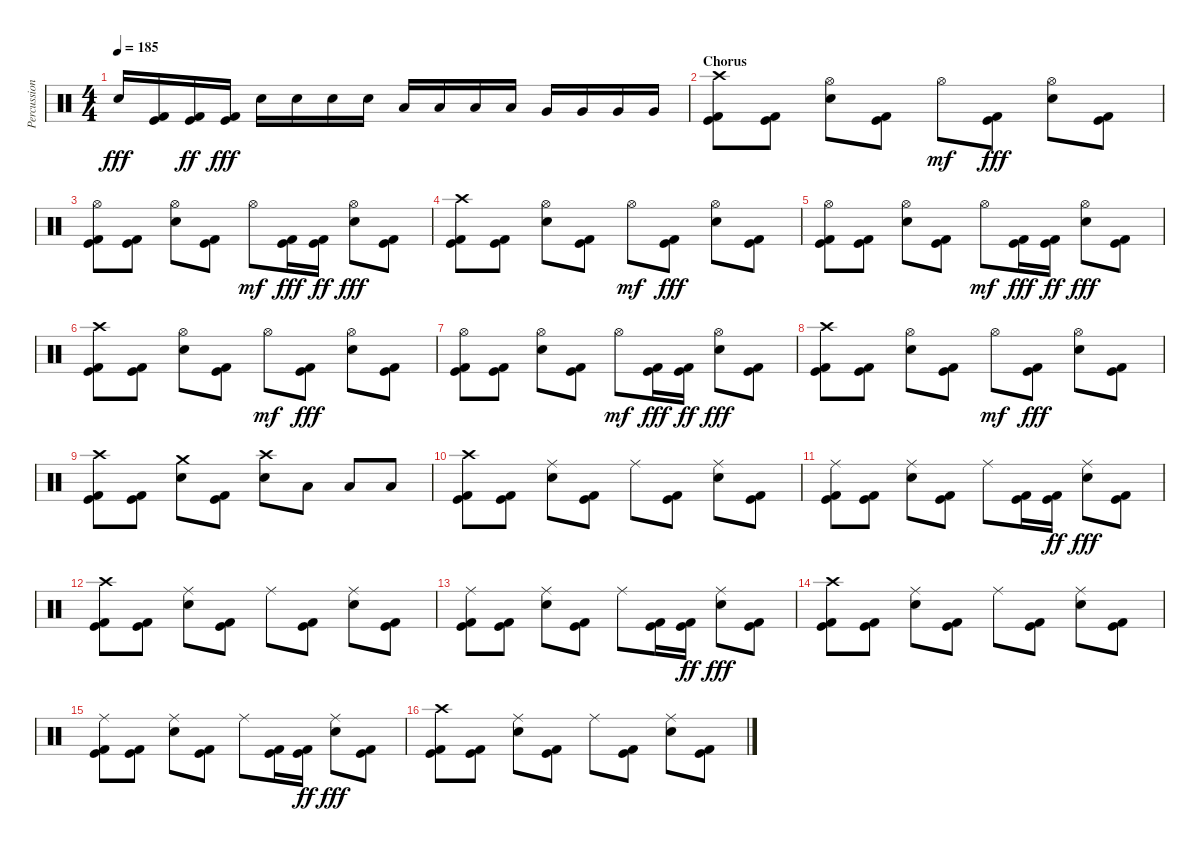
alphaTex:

\track ("Percussion" "Percussion") {instrument percussion}
\staff {score}
\articulation defaults
\ts (4 4)
\tempo 185
\clef neutral
\ks c "Snare (hit) 2".16{dy fff}
("Kick (hit)" "Kick (hit) 2").16 ("Kick (hit)" "Kick (hit) 2").16{dy ff} ("Kick (hit)" "Kick (hit) 2").16{dy fff} "Snare (hit) 2".16 "Snare (hit) 2".16 "Snare (hit) 2".16 "Snare (hit) 2".16 "Low Tom (hit)".16 "Low Tom (hit)".16 "Low Tom (hit)".16 "Low Tom (hit)".16 "Very Low Tom (hit)".16 "Very Low Tom (hit)".16 "Very Low Tom (hit)".16 "Very Low Tom (hit)".16 |
\section ("" "Chorus")
("Crash high (hit)" "Kick (hit)" "Kick (hit) 2").8 ("Kick (hit)" "Kick (hit) 2").8 ("Hi-Hat (open)" "Snare (hit) 2").8 ("Kick (hit)" "Kick (hit) 2").8 "Hi-Hat (open)".8{dy mf} ("Kick (hit)" "Kick (hit) 2").8{dy fff} ("Hi-Hat (open)" "Snare (hit) 2").8 ("Kick (hit)" "Kick (hit) 2").8 |
("Hi-Hat (open)" "Kick (hit)" "Kick (hit) 2").8 ("Kick (hit)" "Kick (hit) 2").8 ("Hi-Hat (open)" "Snare (hit) 2").8 ("Kick (hit)" "Kick (hit) 2").8 "Hi-Hat (open)".8{dy mf} ("Kick (hit)" "Kick (hit) 2").16{dy fff} ("Kick (hit)" "Kick (hit) 2").16{dy ff} ("Hi-Hat (open)" "Snare (hit) 2").8{dy fff} ("Kick (hit)" "Kick (hit) 2").8 |
("Crash high (hit)" "Kick (hit)" "Kick (hit) 2").8 ("Kick (hit)" "Kick (hit) 2").8 ("Hi-Hat (open)" "Snare (hit) 2").8 ("Kick (hit)" "Kick (hit) 2").8 "Hi-Hat (open)".8{dy mf} ("Kick (hit)" "Kick (hit) 2").8{dy fff} ("Hi-Hat (open)" "Snare (hit) 2").8 ("Kick (hit)" "Kick (hit) 2").8 |
("Hi-Hat (open)" "Kick (hit)" "Kick (hit) 2").8 ("Kick (hit)" "Kick (hit) 2").8 ("Hi-Hat (open)" "Snare (hit) 2").8 ("Kick (hit)" "Kick (hit) 2").8 "Hi-Hat (open)".8{dy mf} ("Kick (hit)" "Kick (hit) 2").16{dy fff} ("Kick (hit)" "Kick (hit) 2").16{dy ff} ("Hi-Hat (open)" "Snare (hit) 2").8{dy fff} ("Kick (hit)" "Kick (hit) 2").8 |
("Crash high (hit)" "Kick (hit)" "Kick (hit) 2").8 ("Kick (hit)" "Kick (hit) 2").8 ("Hi-Hat (open)" "Snare (hit) 2").8 ("Kick (hit)" "Kick (hit) 2").8 "Hi-Hat (open)".8{dy mf} ("Kick (hit)" "Kick (hit) 2").8{dy fff} ("Hi-Hat (open)" "Snare (hit) 2").8 ("Kick (hit)" "Kick (hit) 2").8 |
("Hi-Hat (open)" "Kick (hit)" "Kick (hit) 2").8 ("Kick (hit)" "Kick (hit) 2").8 ("Hi-Hat (open)" "Snare (hit) 2").8 ("Kick (hit)" "Kick (hit) 2").8 "Hi-Hat (open)".8{dy mf} ("Kick (hit)" "Kick (hit) 2").16{dy fff} ("Kick (hit)" "Kick (hit) 2").16{dy ff} ("Hi-Hat (open)" "Snare (hit) 2").8{dy fff} ("Kick (hit)" "Kick (hit) 2").8 |
("Crash high (hit)" "Kick (hit)" "Kick (hit) 2").8 ("Kick (hit)" "Kick (hit) 2").8 ("Hi-Hat (open)" "Snare (hit) 2").8 ("Kick (hit)" "Kick (hit) 2").8 "Hi-Hat (open)".8{dy mf} ("Kick (hit)" "Kick (hit) 2").8{dy fff} ("Hi-Hat (open)" "Snare (hit) 2").8 ("Kick (hit)" "Kick (hit) 2").8 |
("Crash high (hit)" "Kick (hit)" "Kick (hit) 2").8 ("Kick (hit)" "Kick (hit) 2").8 ("Crash medium (hit)" "Snare (hit) 2").8 ("Kick (hit)" "Kick (hit) 2").8 ("Crash high (hit)" "Snare (hit) 2").8 "Low Tom (hit)".8 "Low Floor Tom (hit)".8 "Low Floor Tom (hit)".8 |
("Crash high (hit)" "Kick (hit)" "Kick (hit) 2").8 ("Kick (hit)" "Kick (hit) 2").8 ("Ride (middle)" "Snare (hit) 2").8 ("Kick (hit)" "Kick (hit) 2").8 "Ride (middle)".8 ("Kick (hit)" "Kick (hit) 2").8 ("Ride (middle)" "Snare (hit) 2").8 ("Kick (hit)" "Kick (hit) 2").8 |
("Ride (middle)" "Kick (hit)" "Kick (hit) 2").8 ("Kick (hit)" "Kick (hit) 2").8 ("Ride (middle)" "Snare (hit) 2").8 ("Kick (hit)" "Kick (hit) 2").8 "Ride (middle)".8 ("Kick (hit)" "Kick (hit) 2").16 ("Kick (hit)" "Kick (hit) 2").16{dy ff} ("Ride (middle)" "Snare (hit) 2").8{dy fff} ("Kick (hit)" "Kick (hit) 2").8 |
("Crash high (hit)" "Kick (hit)" "Kick (hit) 2").8 ("Kick (hit)" "Kick (hit) 2").8 ("Ride (middle)" "Snare (hit) 2").8 ("Kick (hit)" "Kick (hit) 2").8 "Ride (middle)".8 ("Kick (hit)" "Kick (hit) 2").8 ("Ride (middle)" "Snare (hit) 2").8 ("Kick (hit)" "Kick (hit) 2").8 |
("Ride (middle)" "Kick (hit)" "Kick (hit) 2").8 ("Kick (hit)" "Kick (hit) 2").8 ("Ride (middle)" "Snare (hit) 2").8 ("Kick (hit)" "Kick (hit) 2").8 "Ride (middle)".8 ("Kick (hit)" "Kick (hit) 2").16 ("Kick (hit)" "Kick (hit) 2").16{dy ff} ("Ride (middle)" "Snare (hit) 2").8{dy fff} ("Kick (hit)" "Kick (hit) 2").8 |
("Crash high (hit)" "Kick (hit)" "Kick (hit) 2").8 ("Kick (hit)" "Kick (hit) 2").8 ("Ride (middle)" "Snare (hit) 2").8 ("Kick (hit)" "Kick (hit) 2").8 "Ride (middle)".8 ("Kick (hit)" "Kick (hit) 2").8 ("Ride (middle)" "Snare (hit) 2").8 ("Kick (hit)" "Kick (hit) 2").8 |
("Ride (middle)" "Kick (hit)" "Kick (hit) 2").8 ("Kick (hit)" "Kick (hit) 2").8 ("Ride (middle)" "Snare (hit) 2").8 ("Kick (hit)" "Kick (hit) 2").8 "Ride (middle)".8 ("Kick (hit)" "Kick (hit) 2").16 ("Kick (hit)" "Kick (hit) 2").16{dy ff} ("Ride (middle)" "Snare (hit) 2").8{dy fff} ("Kick (hit)" "Kick (hit) 2").8 |
("Crash high (hit)" "Kick (hit)" "Kick (hit) 2").8 ("Kick (hit)" "Kick (hit) 2").8 ("Ride (middle)" "Snare (hit) 2").8 ("Kick (hit)" "Kick (hit) 2").8 "Ride (middle)".8 ("Kick (hit)" "Kick (hit) 2").8 ("Ride (middle)" "Snare (hit) 2").8 ("Kick (hit)" "Kick (hit) 2").8
